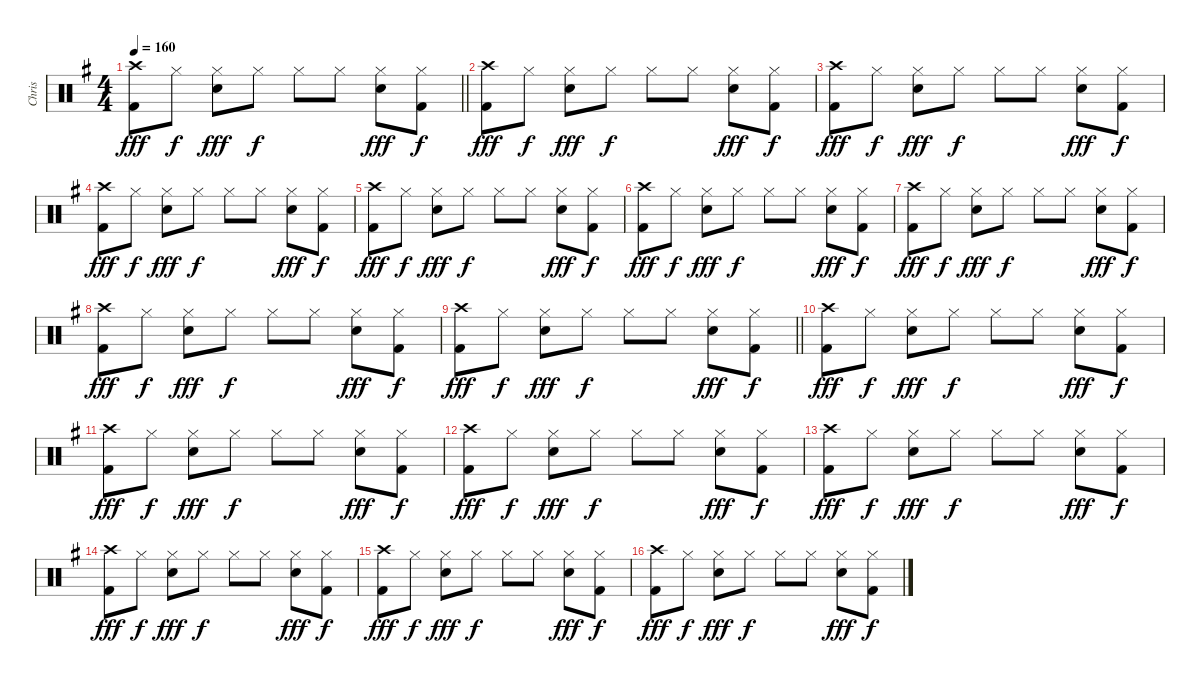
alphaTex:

\track ("Chris" "Chris") {instrument percussion}
\staff {score}
\articulation defaults
\ts (4 4)
\tempo 160
\clef neutral
\barLineRight lightlight
\ks eminor
("Crash high (hit)" "Kick (hit) 2").8{dy fff} "Hi-Hat (closed)".8{dy f} ("Hi-Hat (closed)" "Snare (hit) 2").8{dy fff} "Hi-Hat (closed)".8{dy f} "Hi-Hat (closed)".8 "Hi-Hat (closed)".8 ("Hi-Hat (closed)" "Snare (hit) 2").8{dy fff} ("Hi-Hat (closed)" "Kick (hit) 2").8{dy f} |
("Crash high (hit)" "Kick (hit) 2").8{dy fff} "Hi-Hat (closed)".8{dy f} ("Hi-Hat (closed)" "Snare (hit) 2").8{dy fff} "Hi-Hat (closed)".8{dy f} "Hi-Hat (closed)".8 "Hi-Hat (closed)".8 ("Hi-Hat (closed)" "Snare (hit) 2").8{dy fff} ("Hi-Hat (closed)" "Kick (hit) 2").8{dy f} |
("Crash high (hit)" "Kick (hit) 2").8{dy fff} "Hi-Hat (closed)".8{dy f} ("Hi-Hat (closed)" "Snare (hit) 2").8{dy fff} "Hi-Hat (closed)".8{dy f} "Hi-Hat (closed)".8 "Hi-Hat (closed)".8 ("Hi-Hat (closed)" "Snare (hit) 2").8{dy fff} ("Hi-Hat (closed)" "Kick (hit) 2").8{dy f} |
("Crash high (hit)" "Kick (hit) 2").8{dy fff} "Hi-Hat (closed)".8{dy f} ("Hi-Hat (closed)" "Snare (hit) 2").8{dy fff} "Hi-Hat (closed)".8{dy f} "Hi-Hat (closed)".8 "Hi-Hat (closed)".8 ("Hi-Hat (closed)" "Snare (hit) 2").8{dy fff} ("Hi-Hat (closed)" "Kick (hit) 2").8{dy f} |
("Crash high (hit)" "Kick (hit) 2").8{dy fff} "Hi-Hat (closed)".8{dy f} ("Hi-Hat (closed)" "Snare (hit) 2").8{dy fff} "Hi-Hat (closed)".8{dy f} "Hi-Hat (closed)".8 "Hi-Hat (closed)".8 ("Hi-Hat (closed)" "Snare (hit) 2").8{dy fff} ("Hi-Hat (closed)" "Kick (hit) 2").8{dy f} |
("Crash high (hit)" "Kick (hit) 2").8{dy fff} "Hi-Hat (closed)".8{dy f} ("Hi-Hat (closed)" "Snare (hit) 2").8{dy fff} "Hi-Hat (closed)".8{dy f} "Hi-Hat (closed)".8 "Hi-Hat (closed)".8 ("Hi-Hat (closed)" "Snare (hit) 2").8{dy fff} ("Hi-Hat (closed)" "Kick (hit) 2").8{dy f} |
("Crash high (hit)" "Kick (hit) 2").8{dy fff} "Hi-Hat (closed)".8{dy f} ("Hi-Hat (closed)" "Snare (hit) 2").8{dy fff} "Hi-Hat (closed)".8{dy f} "Hi-Hat (closed)".8 "Hi-Hat (closed)".8 ("Hi-Hat (closed)" "Snare (hit) 2").8{dy fff} ("Hi-Hat (closed)" "Kick (hit) 2").8{dy f} |
("Crash high (hit)" "Kick (hit) 2").8{dy fff} "Hi-Hat (closed)".8{dy f} ("Hi-Hat (closed)" "Snare (hit) 2").8{dy fff} "Hi-Hat (closed)".8{dy f} "Hi-Hat (closed)".8 "Hi-Hat (closed)".8 ("Hi-Hat (closed)" "Snare (hit) 2").8{dy fff} ("Hi-Hat (closed)" "Kick (hit) 2").8{dy f} |
\barLineRight lightlight
("Crash high (hit)" "Kick (hit) 2").8{dy fff} "Hi-Hat (closed)".8{dy f} ("Hi-Hat (closed)" "Snare (hit) 2").8{dy fff} "Hi-Hat (closed)".8{dy f} "Hi-Hat (closed)".8 "Hi-Hat (closed)".8 ("Hi-Hat (closed)" "Snare (hit) 2").8{dy fff} ("Hi-Hat (closed)" "Kick (hit) 2").8{dy f} |
("Crash high (hit)" "Kick (hit) 2").8{dy fff} "Hi-Hat (closed)".8{dy f} ("Hi-Hat (closed)" "Snare (hit) 2").8{dy fff} "Hi-Hat (closed)".8{dy f} "Hi-Hat (closed)".8 "Hi-Hat (closed)".8 ("Hi-Hat (closed)" "Snare (hit) 2").8{dy fff} ("Hi-Hat (closed)" "Kick (hit) 2").8{dy f} |
("Crash high (hit)" "Kick (hit) 2").8{dy fff} "Hi-Hat (closed)".8{dy f} ("Hi-Hat (closed)" "Snare (hit) 2").8{dy fff} "Hi-Hat (closed)".8{dy f} "Hi-Hat (closed)".8 "Hi-Hat (closed)".8 ("Hi-Hat (closed)" "Snare (hit) 2").8{dy fff} ("Hi-Hat (closed)" "Kick (hit) 2").8{dy f} |
("Crash high (hit)" "Kick (hit) 2").8{dy fff} "Hi-Hat (closed)".8{dy f} ("Hi-Hat (closed)" "Snare (hit) 2").8{dy fff} "Hi-Hat (closed)".8{dy f} "Hi-Hat (closed)".8 "Hi-Hat (closed)".8 ("Hi-Hat (closed)" "Snare (hit) 2").8{dy fff} ("Hi-Hat (closed)" "Kick (hit) 2").8{dy f} |
("Crash high (hit)" "Kick (hit) 2").8{dy fff} "Hi-Hat (closed)".8{dy f} ("Hi-Hat (closed)" "Snare (hit) 2").8{dy fff} "Hi-Hat (closed)".8{dy f} "Hi-Hat (closed)".8 "Hi-Hat (closed)".8 ("Hi-Hat (closed)" "Snare (hit) 2").8{dy fff} ("Hi-Hat (closed)" "Kick (hit) 2").8{dy f} |
("Crash high (hit)" "Kick (hit) 2").8{dy fff} "Hi-Hat (closed)".8{dy f} ("Hi-Hat (closed)" "Snare (hit) 2").8{dy fff} "Hi-Hat (closed)".8{dy f} "Hi-Hat (closed)".8 "Hi-Hat (closed)".8 ("Hi-Hat (closed)" "Snare (hit) 2").8{dy fff} ("Hi-Hat (closed)" "Kick (hit) 2").8{dy f} |
("Crash high (hit)" "Kick (hit) 2").8{dy fff} "Hi-Hat (closed)".8{dy f} ("Hi-Hat (closed)" "Snare (hit) 2").8{dy fff} "Hi-Hat (closed)".8{dy f} "Hi-Hat (closed)".8 "Hi-Hat (closed)".8 ("Hi-Hat (closed)" "Snare (hit) 2").8{dy fff} ("Hi-Hat (closed)" "Kick (hit) 2").8{dy f} |
("Crash high (hit)" "Kick (hit) 2").8{dy fff} "Hi-Hat (closed)".8{dy f} ("Hi-Hat (closed)" "Snare (hit) 2").8{dy fff} "Hi-Hat (closed)".8{dy f} "Hi-Hat (closed)".8 "Hi-Hat (closed)".8 ("Hi-Hat (closed)" "Snare (hit) 2").8{dy fff} ("Hi-Hat (closed)" "Kick (hit) 2").8{dy f}
